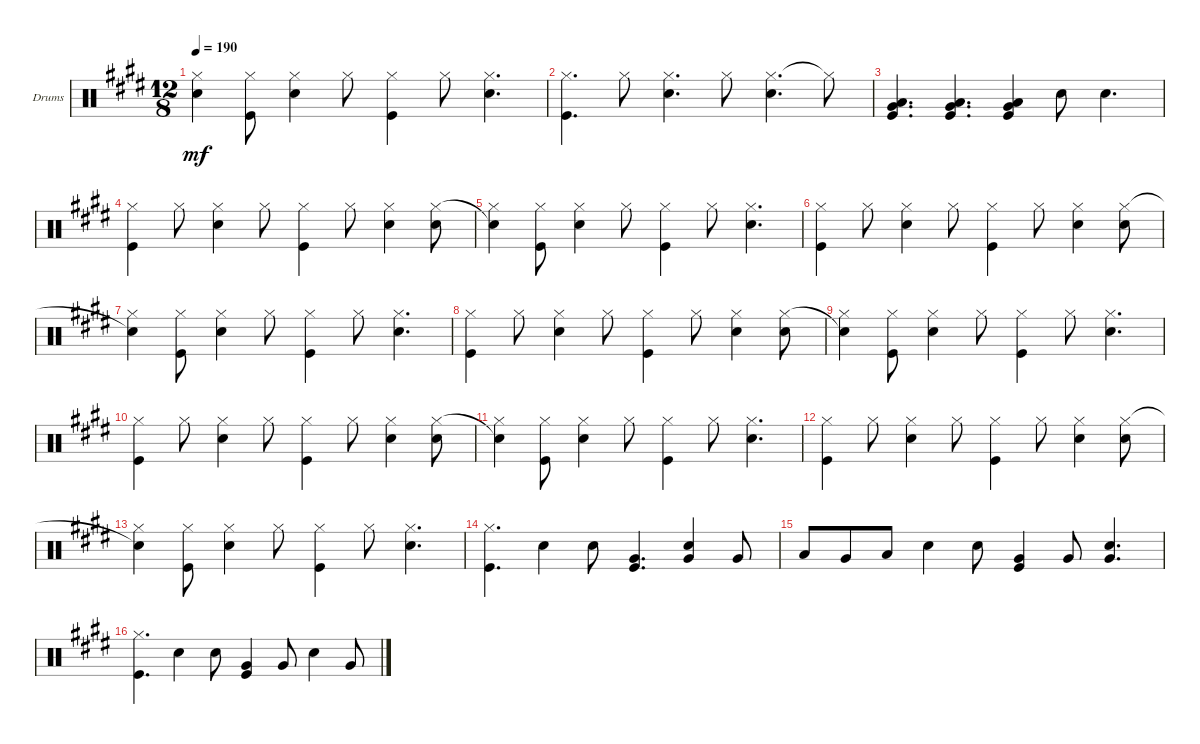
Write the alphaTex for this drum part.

\defaultSystemsLayout 4
\bracketExtendMode groupsimilarinstruments
\firstSystemTrackNameOrientation horizontal
\otherSystemsTrackNameOrientation horizontal
\track ("Drumkit" "Drums") {instrument percussion}
\staff {score}
\articulation defaults
\ts (12 8)
\tempo 190
\clef neutral
\ks c#minor
("Snare (hit) 2"{t} "Hi-Hat (closed)").4{dy mf} ("Hi-Hat (closed)" "Kick (hit)").8 ("Snare (hit) 2" "Hi-Hat (closed)").4 "Hi-Hat (closed)".8 ("Hi-Hat (closed)" "Kick (hit)").4 "Hi-Hat (closed)".8 ("Hi-Hat (closed)" "Snare (hit) 2").4{d} |
("Hi-Hat (closed)" "Kick (hit)").4{d} "Hi-Hat (closed)".8 ("Hi-Hat (closed)" "Snare (hit) 2").4{d} "Hi-Hat (closed)".8 ("Hi-Hat (closed)" "Snare (hit) 2").4{d} "Hi-Hat (closed)"{t}.8 |
("Low Tom (hit)" "Very Low Tom (hit)" "Kick (hit)").4{d} ("Kick (hit)" "Very Low Tom (hit)" "Low Tom (hit)").4{d} ("Low Tom (hit)" "Very Low Tom (hit)" "Kick (hit)").4 "Snare (hit) 2".8 "Snare (hit) 2".4{d} |
("Hi-Hat (closed)" "Kick (hit)").4 "Hi-Hat (closed)".8 ("Hi-Hat (closed)" "Snare (hit) 2").4 "Hi-Hat (closed)".8 ("Hi-Hat (closed)" "Kick (hit)").4 "Hi-Hat (closed)".8 ("Hi-Hat (closed)" "Snare (hit) 2").4 ("Hi-Hat (closed)" "Snare (hit) 2").8 |
("Snare (hit) 2"{t} "Hi-Hat (closed)").4 ("Hi-Hat (closed)" "Kick (hit)").8 ("Snare (hit) 2" "Hi-Hat (closed)").4 "Hi-Hat (closed)".8 ("Hi-Hat (closed)" "Kick (hit)").4 "Hi-Hat (closed)".8 ("Hi-Hat (closed)" "Snare (hit) 2").4{d} |
("Hi-Hat (closed)" "Kick (hit)").4 "Hi-Hat (closed)".8 ("Hi-Hat (closed)" "Snare (hit) 2").4 "Hi-Hat (closed)".8 ("Hi-Hat (closed)" "Kick (hit)").4 "Hi-Hat (closed)".8 ("Hi-Hat (closed)" "Snare (hit) 2").4 ("Hi-Hat (closed)" "Snare (hit) 2").8 |
("Snare (hit) 2"{t} "Hi-Hat (closed)").4 ("Hi-Hat (closed)" "Kick (hit)").8 ("Snare (hit) 2" "Hi-Hat (closed)").4 "Hi-Hat (closed)".8 ("Hi-Hat (closed)" "Kick (hit)").4 "Hi-Hat (closed)".8 ("Hi-Hat (closed)" "Snare (hit) 2").4{d} |
("Hi-Hat (closed)" "Kick (hit)").4 "Hi-Hat (closed)".8 ("Hi-Hat (closed)" "Snare (hit) 2").4 "Hi-Hat (closed)".8 ("Hi-Hat (closed)" "Kick (hit)").4 "Hi-Hat (closed)".8 ("Hi-Hat (closed)" "Snare (hit) 2").4 ("Hi-Hat (closed)" "Snare (hit) 2").8 |
("Snare (hit) 2"{t} "Hi-Hat (closed)").4 ("Hi-Hat (closed)" "Kick (hit)").8 ("Snare (hit) 2" "Hi-Hat (closed)").4 "Hi-Hat (closed)".8 ("Hi-Hat (closed)" "Kick (hit)").4 "Hi-Hat (closed)".8 ("Hi-Hat (closed)" "Snare (hit) 2").4{d} |
("Hi-Hat (closed)" "Kick (hit)").4 "Hi-Hat (closed)".8 ("Hi-Hat (closed)" "Snare (hit) 2").4 "Hi-Hat (closed)".8 ("Hi-Hat (closed)" "Kick (hit)").4 "Hi-Hat (closed)".8 ("Hi-Hat (closed)" "Snare (hit) 2").4 ("Hi-Hat (closed)" "Snare (hit) 2").8 |
("Snare (hit) 2"{t} "Hi-Hat (closed)").4 ("Hi-Hat (closed)" "Kick (hit)").8 ("Snare (hit) 2" "Hi-Hat (closed)").4 "Hi-Hat (closed)".8 ("Hi-Hat (closed)" "Kick (hit)").4 "Hi-Hat (closed)".8 ("Hi-Hat (closed)" "Snare (hit) 2").4{d} |
("Hi-Hat (closed)" "Kick (hit)").4 "Hi-Hat (closed)".8 ("Hi-Hat (closed)" "Snare (hit) 2").4 "Hi-Hat (closed)".8 ("Hi-Hat (closed)" "Kick (hit)").4 "Hi-Hat (closed)".8 ("Hi-Hat (closed)" "Snare (hit) 2").4 ("Hi-Hat (closed)" "Snare (hit) 2").8 |
("Snare (hit) 2"{t} "Hi-Hat (closed)").4 ("Hi-Hat (closed)" "Kick (hit)").8 ("Snare (hit) 2" "Hi-Hat (closed)").4 "Hi-Hat (closed)".8 ("Hi-Hat (closed)" "Kick (hit)").4 "Hi-Hat (closed)".8 ("Hi-Hat (closed)" "Snare (hit) 2").4{d} |
("Hi-Hat (closed)" "Kick (hit)").4{d} "Snare (hit) 2".4 "Snare (hit) 2".8 ("Very Low Tom (hit)" "Kick (hit)").4{d} ("Very Low Tom (hit)" "Snare (hit) 2").4 "Very Low Tom (hit)".8 |
"Low Tom (hit)".8 "Very Low Tom (hit)".8 "Low Tom (hit)".8 "Snare (hit) 2".4 "Snare (hit) 2".8 ("Very Low Tom (hit)" "Kick (hit)").4 "Very Low Tom (hit)".8 ("Very Low Tom (hit)" "Snare (hit) 2").4{d} |
("Hi-Hat (closed)" "Kick (hit)").4{d} "Snare (hit) 2".4 "Snare (hit) 2".8 ("Very Low Tom (hit)" "Kick (hit)").4 "Very Low Tom (hit)".8 "Snare (hit) 2".4 "Very Low Tom (hit)".8
